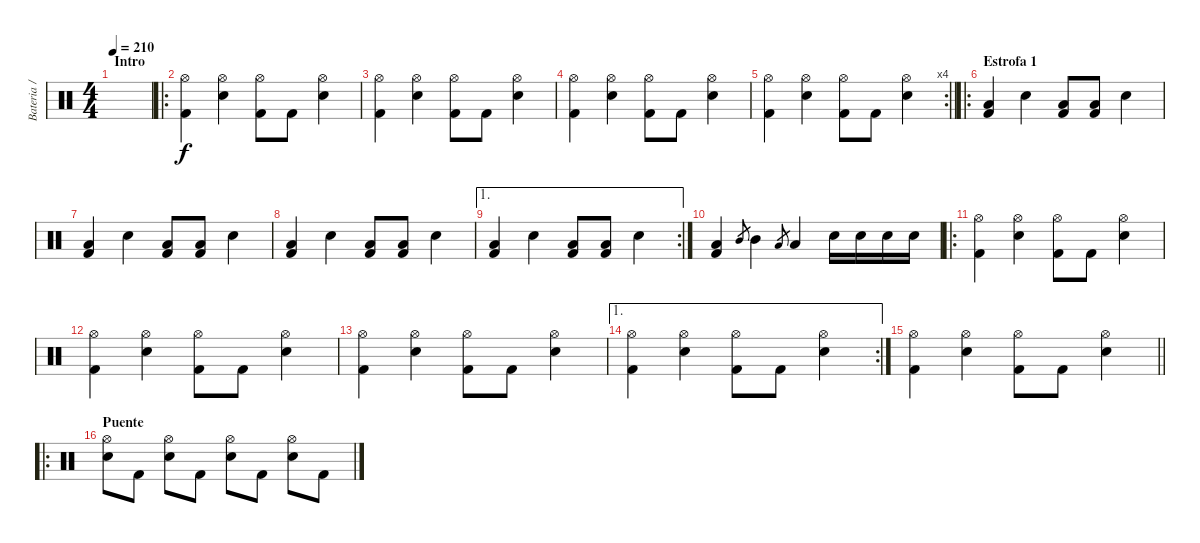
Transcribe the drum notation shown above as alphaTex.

\track ("Bateria / Percusión" "Bateria / ") {instrument percussion}
\staff {score}
\articulation defaults
\ts (4 4)
\section ("" "Intro")
\tempo 210
\clef neutral
\ks c
|
\ro
("Hi-Hat (open)" "Kick (hit) 2").4 ("Hi-Hat (open)" "Electric Snare (hit)").4 ("Hi-Hat (open)" "Kick (hit) 2").8 "Kick (hit) 2".8 ("Hi-Hat (open)" "Electric Snare (hit)").4 |
("Hi-Hat (open)" "Kick (hit) 2").4 ("Hi-Hat (open)" "Electric Snare (hit)").4 ("Hi-Hat (open)" "Kick (hit) 2").8 "Kick (hit) 2".8 ("Hi-Hat (open)" "Electric Snare (hit)").4 |
("Hi-Hat (open)" "Kick (hit) 2").4 ("Hi-Hat (open)" "Electric Snare (hit)").4 ("Hi-Hat (open)" "Kick (hit) 2").8 "Kick (hit) 2".8 ("Hi-Hat (open)" "Electric Snare (hit)").4 |
\rc 4
\barLineRight lightlight
("Hi-Hat (open)" "Kick (hit) 2").4 ("Hi-Hat (open)" "Electric Snare (hit)").4 ("Hi-Hat (open)" "Kick (hit) 2").8 "Kick (hit) 2".8 ("Hi-Hat (open)" "Electric Snare (hit)").4 |
\ro
\section ("" "Estrofa 1")
("Low Floor Tom (hit)" "Kick (hit) 2").4 "Electric Snare (hit)".4 ("Low Floor Tom (hit)" "Kick (hit) 2").8 ("Low Floor Tom (hit)" "Kick (hit) 2").8 "Electric Snare (hit)".4 |
("Low Floor Tom (hit)" "Kick (hit) 2").4 "Electric Snare (hit)".4 ("Low Floor Tom (hit)" "Kick (hit) 2").8 ("Low Floor Tom (hit)" "Kick (hit) 2").8 "Electric Snare (hit)".4 |
("Low Floor Tom (hit)" "Kick (hit) 2").4 "Electric Snare (hit)".4 ("Low Floor Tom (hit)" "Kick (hit) 2").8 ("Low Floor Tom (hit)" "Kick (hit) 2").8 "Electric Snare (hit)".4 |
\ae 1
\rc 2
("Low Floor Tom (hit)" "Kick (hit) 2").4 "Electric Snare (hit)".4 ("Low Floor Tom (hit)" "Kick (hit) 2").8 ("Low Floor Tom (hit)" "Kick (hit) 2").8 "Electric Snare (hit)".4 |
("Low Floor Tom (hit)" "Kick (hit) 2").4 "Mid Tom (hit)".8{gr} "Mid Tom (hit)".4 "Low Tom (hit)".8{gr} "Low Tom (hit)".4 "Electric Snare (hit)".16 "Electric Snare (hit)".16 "Electric Snare (hit)".16 "Electric Snare (hit)".16 |
\ro
("Hi-Hat (open)" "Kick (hit) 2").4 ("Hi-Hat (open)" "Electric Snare (hit)").4 ("Hi-Hat (open)" "Kick (hit) 2").8 "Kick (hit) 2".8 ("Hi-Hat (open)" "Electric Snare (hit)").4 |
("Hi-Hat (open)" "Kick (hit) 2").4 ("Hi-Hat (open)" "Electric Snare (hit)").4 ("Hi-Hat (open)" "Kick (hit) 2").8 "Kick (hit) 2".8 ("Hi-Hat (open)" "Electric Snare (hit)").4 |
("Hi-Hat (open)" "Kick (hit) 2").4 ("Hi-Hat (open)" "Electric Snare (hit)").4 ("Hi-Hat (open)" "Kick (hit) 2").8 "Kick (hit) 2".8 ("Hi-Hat (open)" "Electric Snare (hit)").4 |
\ae 1
\rc 2
("Hi-Hat (open)" "Kick (hit) 2").4 ("Hi-Hat (open)" "Electric Snare (hit)").4 ("Hi-Hat (open)" "Kick (hit) 2").8 "Kick (hit) 2".8 ("Hi-Hat (open)" "Electric Snare (hit)").4 |
\barLineRight lightlight
("Hi-Hat (open)" "Kick (hit) 2").4 ("Hi-Hat (open)" "Electric Snare (hit)").4 ("Hi-Hat (open)" "Kick (hit) 2").8 "Kick (hit) 2".8 ("Hi-Hat (open)" "Electric Snare (hit)").4 |
\ro
\section ("" "Puente")
("Hi-Hat (open)" "Electric Snare (hit)").8 "Kick (hit) 2".8 ("Hi-Hat (open)" "Electric Snare (hit)").8 "Kick (hit) 2".8 ("Hi-Hat (open)" "Electric Snare (hit)").8 "Kick (hit) 2".8 ("Hi-Hat (open)" "Electric Snare (hit)").8 "Kick (hit) 2".8
